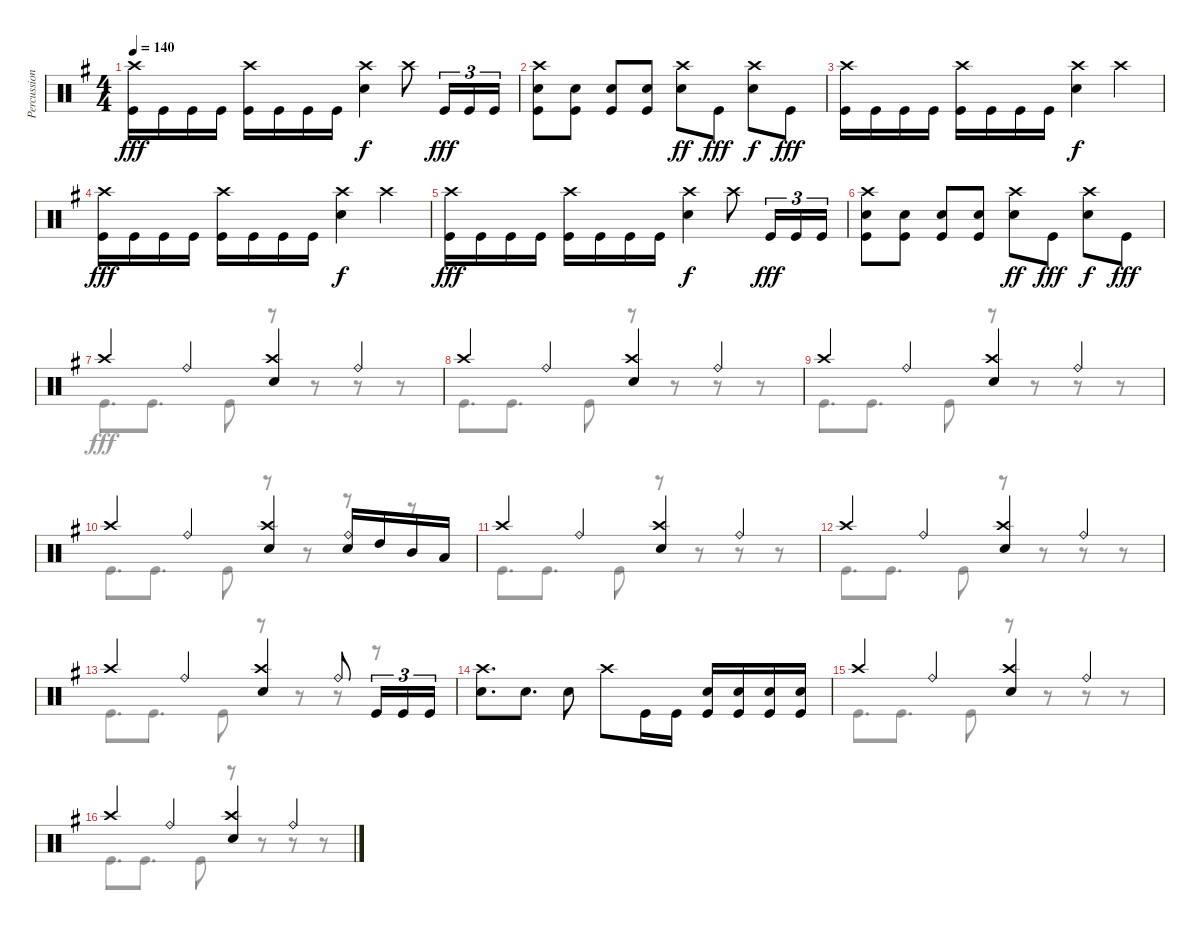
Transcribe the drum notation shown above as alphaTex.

\track ("Percussion" "Percussion") {instrument percussion}
\staff {score}
\articulation defaults
\voice
\ts (4 4)
\tempo 140
\clef neutral
\ks eminor
("Crash high (hit)" "Kick (hit)").16{dy fff} "Kick (hit)".16 "Kick (hit)".16 "Kick (hit)".16 ("Crash high (hit)" "Kick (hit)").16 "Kick (hit)".16 "Kick (hit)".16 "Kick (hit)".16 ("Crash high (hit)" "Snare (hit) 2").4{dy f} "Crash high (hit)".8 "Kick (hit)".16{tu (3 2) dy fff} "Kick (hit)".16{tu (3 2)} "Kick (hit)".16{tu (3 2)} |
("Crash high (hit)" "Snare (hit) 2" "Kick (hit)").8 ("Snare (hit) 2" "Kick (hit)").8 ("Snare (hit) 2" "Kick (hit)").8 ("Snare (hit) 2" "Kick (hit)").8 ("Crash high (hit)" "Snare (hit) 2").8{dy ff} "Kick (hit)".8{dy fff} ("Crash high (hit)" "Snare (hit) 2").8{dy f} "Kick (hit)".8{dy fff} |
("Crash high (hit)" "Kick (hit)").16 "Kick (hit)".16 "Kick (hit)".16 "Kick (hit)".16 ("Crash high (hit)" "Kick (hit)").16 "Kick (hit)".16 "Kick (hit)".16 "Kick (hit)".16 ("Crash high (hit)" "Snare (hit) 2").4{dy f} "Crash high (hit)".4 |
("Crash high (hit)" "Kick (hit)").16{dy fff} "Kick (hit)".16 "Kick (hit)".16 "Kick (hit)".16 ("Crash high (hit)" "Kick (hit)").16 "Kick (hit)".16 "Kick (hit)".16 "Kick (hit)".16 ("Crash high (hit)" "Snare (hit) 2").4{dy f} "Crash high (hit)".4 |
("Crash high (hit)" "Kick (hit)").16{dy fff} "Kick (hit)".16 "Kick (hit)".16 "Kick (hit)".16 ("Crash high (hit)" "Kick (hit)").16 "Kick (hit)".16 "Kick (hit)".16 "Kick (hit)".16 ("Crash high (hit)" "Snare (hit) 2").4{dy f} "Crash high (hit)".8 "Kick (hit)".16{tu (3 2) dy fff} "Kick (hit)".16{tu (3 2)} "Kick (hit)".16{tu (3 2)} |
("Crash high (hit)" "Snare (hit) 2" "Kick (hit)").8 ("Snare (hit) 2" "Kick (hit)").8 ("Snare (hit) 2" "Kick (hit)").8 ("Snare (hit) 2" "Kick (hit)").8 ("Crash high (hit)" "Snare (hit) 2").8{dy ff} "Kick (hit)".8{dy fff} ("Crash high (hit)" "Snare (hit) 2").8{dy f} "Kick (hit)".8{dy fff} |
"Crash high (hit)".4 "Ride (bell)".4 ("Crash high (hit)" "Snare (hit) 2").4 "Ride (bell)".4 |
"Crash high (hit)".4 "Ride (bell)".4 ("Crash high (hit)" "Snare (hit) 2").4 "Ride (bell)".4 |
"Crash high (hit)".4 "Ride (bell)".4 ("Crash high (hit)" "Snare (hit) 2").4 "Ride (bell)".4 |
"Crash high (hit)".4 "Ride (bell)".4 ("Crash high (hit)" "Snare (hit) 2").4 ("Ride (bell)" "Snare (hit) 2").16 "High Tom (hit)".16 "Mid Tom (hit)".16 "Low Tom (hit)".16 |
"Crash high (hit)".4 "Ride (bell)".4 ("Crash high (hit)" "Snare (hit) 2").4 "Ride (bell)".4 |
"Crash high (hit)".4 "Ride (bell)".4 ("Crash high (hit)" "Snare (hit) 2").4 "Ride (bell)".4 |
"Crash high (hit)".4 "Ride (bell)".4 ("Crash high (hit)" "Snare (hit) 2").4 "Ride (bell)".8 "Kick (hit)".16{tu (3 2)} "Kick (hit)".16{tu (3 2)} "Kick (hit)".16{tu (3 2)} |
("Crash high (hit)" "Snare (hit) 2").8{d} "Snare (hit) 2".8{d} "Snare (hit) 2".8 "Crash high (hit)".8 "Kick (hit)".16 "Kick (hit)".16 ("Snare (hit) 2" "Kick (hit)").16 ("Snare (hit) 2" "Kick (hit)").16 ("Snare (hit) 2" "Kick (hit)").16 ("Snare (hit) 2" "Kick (hit)").16 |
"Crash high (hit)".4 "Ride (bell)".4 ("Crash high (hit)" "Snare (hit) 2").4 "Ride (bell)".4 |
"Crash high (hit)".4 "Ride (bell)".4 ("Crash high (hit)" "Snare (hit) 2").4 "Ride (bell)".4
\voice
\clef neutral
\ottava regular
\simile none
\ks eminor
|
|
|
|
|
|
"Kick (hit)".8{d} "Kick (hit)".8{d} "Kick (hit)".8 r.8 r.8 r.8 r.8 |
"Kick (hit)".8{d} "Kick (hit)".8{d} "Kick (hit)".8 r.8 r.8 r.8 r.8 |
"Kick (hit)".8{d} "Kick (hit)".8{d} "Kick (hit)".8 r.8 r.8 r.8 r.8 |
"Kick (hit)".8{d} "Kick (hit)".8{d} "Kick (hit)".8 r.8 r.8 r.8 r.8 |
"Kick (hit)".8{d} "Kick (hit)".8{d} "Kick (hit)".8 r.8 r.8 r.8 r.8 |
"Kick (hit)".8{d} "Kick (hit)".8{d} "Kick (hit)".8 r.8 r.8 r.8 r.8 |
"Kick (hit)".8{d} "Kick (hit)".8{d} "Kick (hit)".8 r.8 r.8 r.8 r.8 |
|
"Kick (hit)".8{d} "Kick (hit)".8{d} "Kick (hit)".8 r.8 r.8 r.8 r.8 |
"Kick (hit)".8{d} "Kick (hit)".8{d} "Kick (hit)".8 r.8 r.8 r.8 r.8
